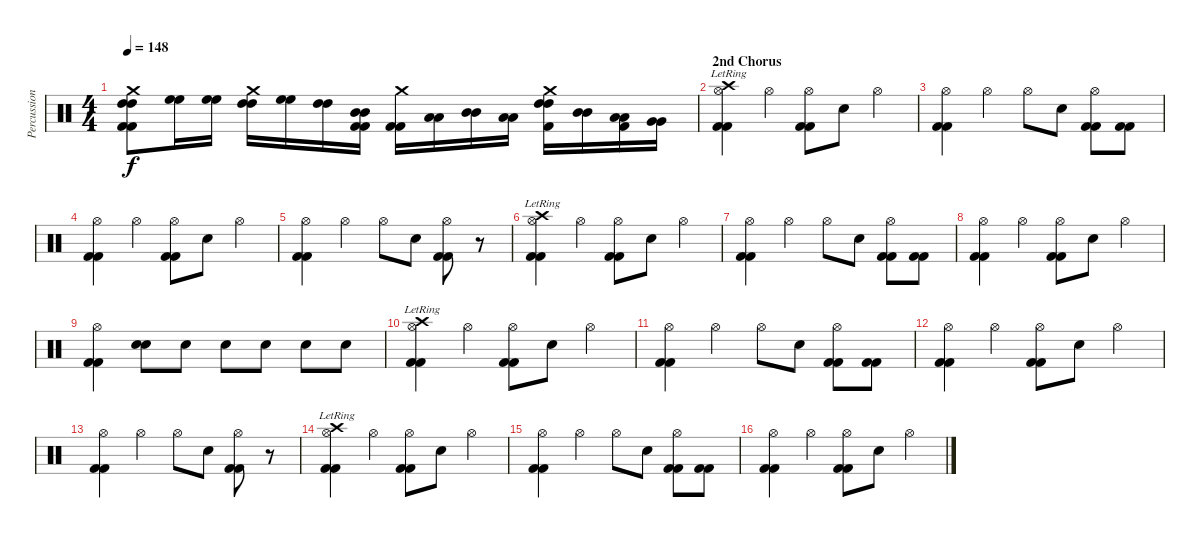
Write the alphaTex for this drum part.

\track ("Percussion" "Percussion") {instrument percussion}
\staff {score}
\articulation defaults
\ts (4 4)
\tempo 148
\clef neutral
\ks c
("Crash medium (hit)" "High Tom (hit)" "High Tom (hit)" "Kick (hit) 2" "Kick (hit) 2").8{bd 240 dy f} ("High Floor Tom (hit)" "High Floor Tom (hit)").16 ("High Floor Tom (hit)" "High Floor Tom (hit)").16 ("Crash medium (hit)" "High Tom (hit)" "High Tom (hit)").16 ("High Floor Tom (hit)" "High Floor Tom (hit)").16 ("High Tom (hit)" "High Tom (hit)").16 ("Mid Tom (hit)" "Mid Tom (hit)" "Kick (hit) 2" "Kick (hit) 2").16 ("Crash medium (hit)" "Kick (hit) 2" "Kick (hit) 2").16 ("Low Tom (hit)" "Low Tom (hit)").16 ("Mid Tom (hit)" "Mid Tom (hit)").16 ("Low Tom (hit)" "Low Tom (hit)").16 ("Crash medium (hit)" "High Tom (hit)" "High Tom (hit)" "Kick (hit) 2").16 ("Mid Tom (hit)" "Mid Tom (hit)").16 ("Low Tom (hit)" "Low Tom (hit)" "Kick (hit) 2").16 ("Very Low Tom (hit)" "Very Low Tom (hit)").16 |
\section ("" "2nd Chorus")
("Crash high (hit)"{lr} "Hi-Hat (open)" "Kick (hit) 2" "Kick (hit) 2").4 "Hi-Hat (open)".4 ("Hi-Hat (open)" "Kick (hit) 2" "Kick (hit) 2").8 "Snare (hit) 2".8 "Hi-Hat (open)".4 |
("Hi-Hat (open)" "Kick (hit) 2" "Kick (hit) 2").4 "Hi-Hat (open)".4 "Hi-Hat (open)".8 "Snare (hit) 2".8 ("Hi-Hat (open)" "Kick (hit) 2" "Kick (hit) 2").8 ("Kick (hit) 2" "Kick (hit) 2").8 |
("Hi-Hat (open)" "Kick (hit) 2" "Kick (hit) 2").4 "Hi-Hat (open)".4 ("Hi-Hat (open)" "Kick (hit) 2" "Kick (hit) 2").8 "Snare (hit) 2".8 "Hi-Hat (open)".4 |
("Hi-Hat (open)" "Kick (hit) 2" "Kick (hit) 2").4 "Hi-Hat (open)".4 "Hi-Hat (open)".8 "Snare (hit) 2".8 ("Hi-Hat (open)" "Kick (hit) 2" "Kick (hit) 2").8 r.8 |
("Crash high (hit)"{lr} "Hi-Hat (open)" "Kick (hit) 2" "Kick (hit) 2").4 "Hi-Hat (open)".4 ("Hi-Hat (open)" "Kick (hit) 2" "Kick (hit) 2").8 "Snare (hit) 2".8 "Hi-Hat (open)".4 |
("Hi-Hat (open)" "Kick (hit) 2" "Kick (hit) 2").4 "Hi-Hat (open)".4 "Hi-Hat (open)".8 "Snare (hit) 2".8 ("Hi-Hat (open)" "Kick (hit) 2" "Kick (hit) 2").8 ("Kick (hit) 2" "Kick (hit) 2").8 |
("Hi-Hat (open)" "Kick (hit) 2" "Kick (hit) 2").4 "Hi-Hat (open)".4 ("Hi-Hat (open)" "Kick (hit) 2" "Kick (hit) 2").8 "Snare (hit) 2".8 "Hi-Hat (open)".4 |
("Hi-Hat (open)" "Kick (hit) 2" "Kick (hit) 2").4 ("Electric Snare (hit)" "Electric Snare (hit)").8{bd 240} "Electric Snare (hit)".8 "Electric Snare (hit)".8 "Electric Snare (hit)".8 "Electric Snare (hit)".8 "Electric Snare (hit)".8 |
("Crash high (hit)"{lr} "Hi-Hat (open)" "Kick (hit) 2" "Kick (hit) 2").4 "Hi-Hat (open)".4 ("Hi-Hat (open)" "Kick (hit) 2" "Kick (hit) 2").8 "Snare (hit) 2".8 "Hi-Hat (open)".4 |
("Hi-Hat (open)" "Kick (hit) 2" "Kick (hit) 2").4 "Hi-Hat (open)".4 "Hi-Hat (open)".8 "Snare (hit) 2".8 ("Hi-Hat (open)" "Kick (hit) 2" "Kick (hit) 2").8 ("Kick (hit) 2" "Kick (hit) 2").8 |
("Hi-Hat (open)" "Kick (hit) 2" "Kick (hit) 2").4 "Hi-Hat (open)".4 ("Hi-Hat (open)" "Kick (hit) 2" "Kick (hit) 2").8 "Snare (hit) 2".8 "Hi-Hat (open)".4 |
("Hi-Hat (open)" "Kick (hit) 2" "Kick (hit) 2").4 "Hi-Hat (open)".4 "Hi-Hat (open)".8 "Snare (hit) 2".8 ("Hi-Hat (open)" "Kick (hit) 2" "Kick (hit) 2").8 r.8 |
("Crash high (hit)"{lr} "Hi-Hat (open)" "Kick (hit) 2" "Kick (hit) 2").4 "Hi-Hat (open)".4 ("Hi-Hat (open)" "Kick (hit) 2" "Kick (hit) 2").8 "Snare (hit) 2".8 "Hi-Hat (open)".4 |
("Hi-Hat (open)" "Kick (hit) 2" "Kick (hit) 2").4 "Hi-Hat (open)".4 "Hi-Hat (open)".8 "Snare (hit) 2".8 ("Hi-Hat (open)" "Kick (hit) 2" "Kick (hit) 2").8 ("Kick (hit) 2" "Kick (hit) 2").8 |
("Hi-Hat (open)" "Kick (hit) 2" "Kick (hit) 2").4 "Hi-Hat (open)".4 ("Hi-Hat (open)" "Kick (hit) 2" "Kick (hit) 2").8 "Snare (hit) 2".8 "Hi-Hat (open)".4
